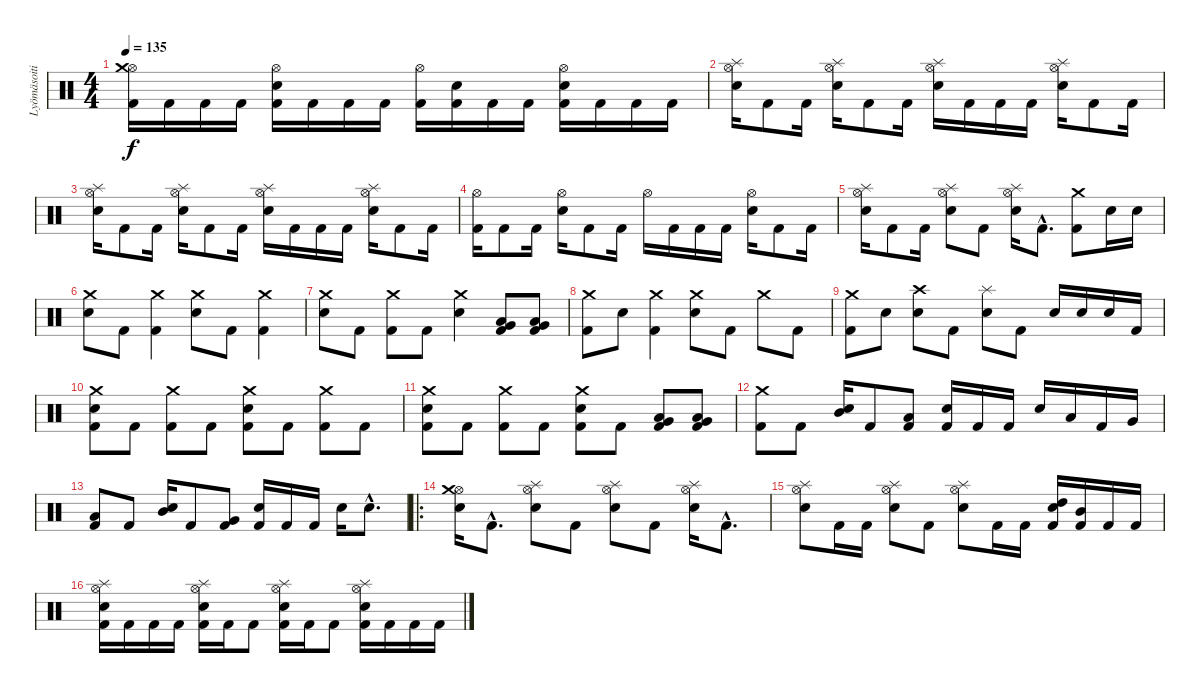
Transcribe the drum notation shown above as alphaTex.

\track ("Lyömäsoitin" "Lyömäsoiti") {instrument percussion}
\staff {score}
\articulation defaults
\ts (4 4)
\tempo 135
\clef neutral
\ks c
("Hi-Hat (open)" "Crash medium (hit)" "Kick (hit) 2").16{dy f} "Kick (hit) 2".16 "Kick (hit) 2".16 "Kick (hit) 2".16 ("Hi-Hat (open)" "Electric Snare (hit)" "Kick (hit) 2").16 "Kick (hit) 2".16 "Kick (hit) 2".16 "Kick (hit) 2".16 ("Hi-Hat (open)" "Kick (hit) 2").16 ("Electric Snare (hit)" "Kick (hit) 2").16 "Kick (hit) 2".16 "Kick (hit) 2".16 ("Hi-Hat (open)" "Electric Snare (hit)" "Kick (hit) 2").16 "Kick (hit) 2".16 "Kick (hit) 2".16 "Kick (hit) 2".16 |
("Hi-Hat (open)" "Splash (hit)" "Electric Snare (hit)").16 "Kick (hit) 2".8 "Kick (hit) 2".16 ("Hi-Hat (open)" "Splash (hit)" "Electric Snare (hit)").16 "Kick (hit) 2".8 "Kick (hit) 2".16 ("Hi-Hat (open)" "Splash (hit)" "Electric Snare (hit)").16 "Kick (hit) 2".16 "Kick (hit) 2".16 "Kick (hit) 2".16 ("Hi-Hat (open)" "Splash (hit)" "Electric Snare (hit)").16 "Kick (hit) 2".8 "Kick (hit) 2".16 |
("Hi-Hat (open)" "Splash (hit)" "Electric Snare (hit)").16 "Kick (hit) 2".8 "Kick (hit) 2".16 ("Hi-Hat (open)" "Splash (hit)" "Electric Snare (hit)").16 "Kick (hit) 2".8 "Kick (hit) 2".16 ("Hi-Hat (open)" "Splash (hit)" "Electric Snare (hit)").16 "Kick (hit) 2".16 "Kick (hit) 2".16 "Kick (hit) 2".16 ("Hi-Hat (open)" "Splash (hit)" "Electric Snare (hit)").16 "Kick (hit) 2".8 "Kick (hit) 2".16 |
("Hi-Hat (open)" "Kick (hit) 2").16 "Kick (hit) 2".8 "Kick (hit) 2".16 ("Hi-Hat (open)" "Electric Snare (hit)").16 "Kick (hit) 2".8 "Kick (hit) 2".16 "Hi-Hat (open)".16 "Kick (hit) 2".16 "Kick (hit) 2".16 "Kick (hit) 2".16 ("Hi-Hat (open)" "Electric Snare (hit)").16 "Kick (hit) 2".8 "Kick (hit) 2".16 |
("Splash (hit)" "Hi-Hat (open)" "Electric Snare (hit)").16 "Kick (hit) 2".8 "Kick (hit) 2".16 ("Splash (hit)" "Hi-Hat (open)" "Electric Snare (hit)").8 "Kick (hit) 2".8 ("Splash (hit)" "Hi-Hat (open)" "Electric Snare (hit)").16 "Kick (hit) 2"{hac}.8{d} ("Crash medium (hit)" "Kick (hit) 2").8 "Electric Snare (hit)".16 "Electric Snare (hit)".16 |
("Crash medium (hit)" "Electric Snare (hit)").8 "Kick (hit) 2".8 ("Crash medium (hit)" "Kick (hit) 2").4 ("Crash medium (hit)" "Electric Snare (hit)").8 "Kick (hit) 2".8 ("Crash medium (hit)" "Kick (hit) 2").4 |
("Crash medium (hit)" "Electric Snare (hit)").8 "Kick (hit) 2".8 ("Crash medium (hit)" "Kick (hit) 2").8 "Kick (hit) 2".8 ("Crash medium (hit)" "Electric Snare (hit)").4 ("Very Low Tom (hit)" "Low Tom (hit)" "Kick (hit) 2").8 ("Very Low Tom (hit)" "Low Floor Tom (hit)" "Kick (hit) 2").8 |
("Crash medium (hit)" "Kick (hit) 2").8 "Electric Snare (hit)".8 ("Crash medium (hit)" "Kick (hit) 2").4 ("Crash medium (hit)" "Electric Snare (hit)").8 "Kick (hit) 2".8 "Crash medium (hit)".8 "Kick (hit) 2".8 |
("Crash medium (hit)" "Kick (hit) 2").8 "Electric Snare (hit)".8 ("Crash high (hit)" "Electric Snare (hit)").8 "Kick (hit) 2".8 ("Splash (hit)" "Electric Snare (hit)").8 "Kick (hit) 2".8 "Electric Snare (hit)".16 "Electric Snare (hit)".16 "Electric Snare (hit)".16 "Kick (hit) 2".16 |
("Crash medium (hit)" "Electric Snare (hit)" "Kick (hit) 2").8 "Kick (hit) 2".8 ("Crash medium (hit)" "Kick (hit) 2").8 "Kick (hit) 2".8 ("Crash medium (hit)" "Electric Snare (hit)" "Kick (hit) 2").8 "Kick (hit) 2".8 ("Crash medium (hit)" "Kick (hit) 2").8 "Kick (hit) 2".8 |
("Crash medium (hit)" "Electric Snare (hit)" "Kick (hit) 2").8 "Kick (hit) 2".8 ("Crash medium (hit)" "Kick (hit) 2").8 "Kick (hit) 2".8 ("Crash medium (hit)" "Electric Snare (hit)" "Kick (hit) 2").8 "Kick (hit) 2".8 ("Very Low Tom (hit)" "Low Floor Tom (hit)" "Kick (hit) 2").8 ("Very Low Tom (hit)" "Low Floor Tom (hit)" "Kick (hit) 2").8 |
("Crash medium (hit)" "Kick (hit) 2").8 "Kick (hit) 2".8 ("Mid Tom (hit)" "Electric Snare (hit)").16 "Kick (hit) 2".8 ("Low Tom (hit)" "Kick (hit) 2").8 ("Electric Snare (hit)" "Kick (hit) 2").16 "Kick (hit) 2".16 "Kick (hit) 2".16 "Electric Snare (hit)".16 "Low Tom (hit)".16 "Kick (hit) 2".16 "Very Low Tom (hit)".16 |
("Low Floor Tom (hit)" "Kick (hit) 2").8 "Kick (hit) 2".8 ("Mid Tom (hit)" "Electric Snare (hit)").16 "Kick (hit) 2".8 ("Very Low Tom (hit)" "Kick (hit) 2").8 ("Electric Snare (hit)" "Kick (hit) 2").16 "Kick (hit) 2".16 "Kick (hit) 2".16 "Electric Snare (hit)".16 "Electric Snare (hit)"{hac}.8{d} |
\ro
("Hi-Hat (open)" "Crash medium (hit)" "Electric Snare (hit)").16 "Kick (hit) 2"{hac}.8{d} ("Hi-Hat (open)" "Splash (hit)" "Electric Snare (hit)").8 "Kick (hit) 2".8 ("Hi-Hat (open)" "Splash (hit)" "Electric Snare (hit)").8 "Kick (hit) 2".8 ("Hi-Hat (open)" "Splash (hit)" "Electric Snare (hit)").16 "Kick (hit) 2"{hac}.8{d} |
("Splash (hit)" "Hi-Hat (open)" "Electric Snare (hit)").8 "Kick (hit) 2".16 "Kick (hit) 2".16 ("Splash (hit)" "Hi-Hat (open)" "Electric Snare (hit)").8 "Kick (hit) 2".8 ("Splash (hit)" "Hi-Hat (open)" "Electric Snare (hit)").8 "Kick (hit) 2".16 "Kick (hit) 2".16 ("High Tom (hit)" "Electric Snare (hit)" "Kick (hit) 2").16 ("Mid Tom (hit)" "Kick (hit) 2").16 "Kick (hit) 2".16 "Kick (hit) 2".16 |
("Splash (hit)" "Hi-Hat (open)" "Electric Snare (hit)" "Kick (hit) 2").16 "Kick (hit) 2".16 "Kick (hit) 2".16 "Kick (hit) 2".16 ("Splash (hit)" "Hi-Hat (open)" "Electric Snare (hit)" "Kick (hit) 2").16 "Kick (hit) 2".16 "Kick (hit) 2".8 ("Splash (hit)" "Hi-Hat (open)" "Electric Snare (hit)" "Kick (hit) 2").16 "Kick (hit) 2".16 "Kick (hit) 2".8 ("Splash (hit)" "Hi-Hat (open)" "Electric Snare (hit)" "Kick (hit) 2").16 "Kick (hit) 2".16 "Kick (hit) 2".16 "Kick (hit) 2".16
